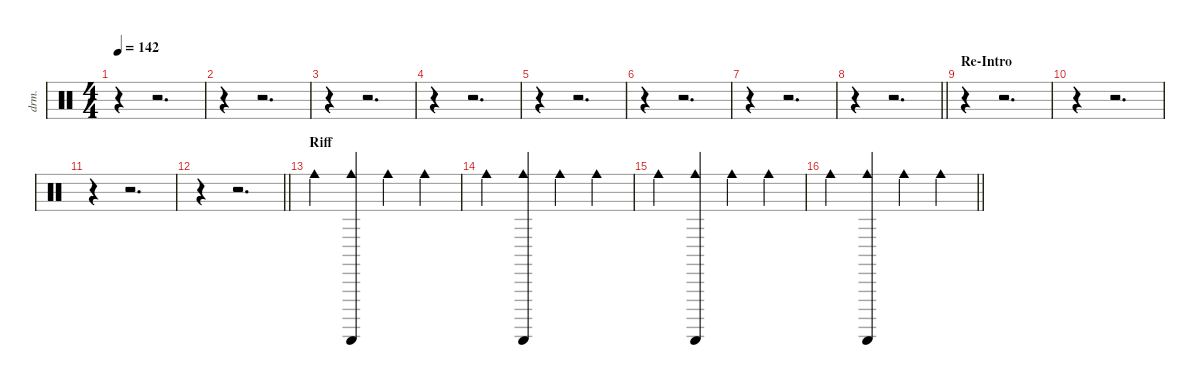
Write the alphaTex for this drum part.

\defaultSystemsLayout 4
\hideDynamics
\bracketExtendMode nobrackets
\otherSystemsTrackNameOrientation horizontal
\track ("Percussion" "drm.") {instrument percussion}
\staff {score}
\articulation defaults
\ts (4 4)
\tempo 142
\clef neutral
\ks c
r.4{dy mf beam Down} r.2{d beam Down} |
r.4{beam Down} r.2{d beam Down} |
r.4{beam Down} r.2{d beam Down} |
r.4{beam Down} r.2{d beam Down} |
r.4{beam Down} r.2{d beam Down} |
r.4{beam Down} r.2{d beam Down} |
r.4{beam Down} r.2{d beam Down} |
\barLineRight lightlight
r.4{beam Down} r.2{d beam Down} |
\section ("" "Re-Intro")
r.4{beam Down} r.2{d beam Down} |
r.4{beam Down} r.2{d beam Down} |
r.4{beam Down} r.2{d beam Down} |
\barLineRight lightlight
r.4{beam Down} r.2{d beam Down} |
\section ("" "Riff")
"Cowbell medium (hit)".4{beam Down} ("Guiro (scrap-return)" "Cowbell medium (hit)").4{dy p beam Up} "Cowbell medium (hit)".4{dy mf beam Down} "Cowbell medium (hit)".4{beam Down} |
"Cowbell medium (hit)".4{beam Down} ("Guiro (scrap-return)" "Cowbell medium (hit)").4{dy p beam Up} "Cowbell medium (hit)".4{dy mf beam Down} "Cowbell medium (hit)".4{beam Down} |
"Cowbell medium (hit)".4{beam Down} ("Guiro (scrap-return)" "Cowbell medium (hit)").4{dy p beam Up} "Cowbell medium (hit)".4{dy mf beam Down} "Cowbell medium (hit)".4{beam Down} |
\barLineRight lightlight "Cowbell medium (hit)".4{beam Down}
("Guiro (scrap-return)" "Cowbell medium (hit)").4{dy p beam Up} "Cowbell medium (hit)".4{dy mf beam Down} "Cowbell medium (hit)".4{beam Down}
